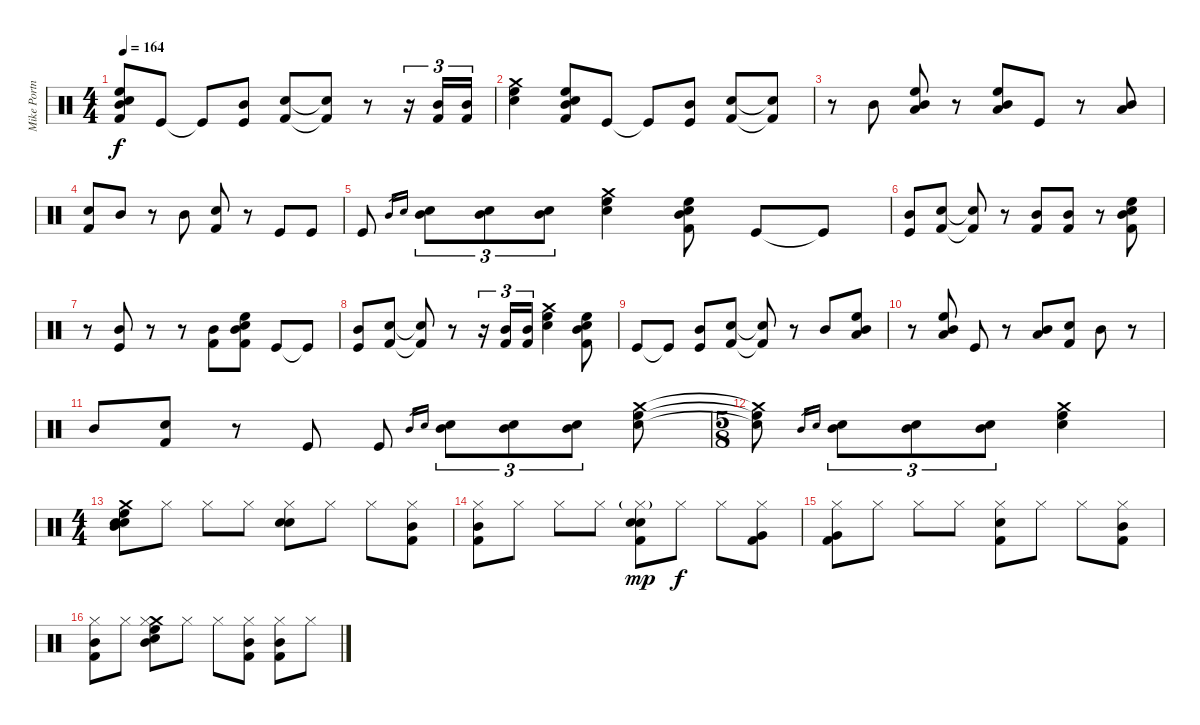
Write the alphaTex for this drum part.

\track ("Mike Portnoy" "Mike Portn") {instrument percussion}
\staff {score}
\articulation defaults
\ts (4 4)
\tempo 164
\clef neutral
\ks c
("Electric Snare (hit)" "Mid Tom (hit)" "Kick (hit) 2" "High Floor Tom (hit)").8{dy f} "Kick (hit)".8 "Kick (hit)"{t}.8 ("Mid Tom (hit)" "Kick (hit)").8 ("Electric Snare (hit)" "Kick (hit) 2").8 ("Electric Snare (hit)"{t} "Kick (hit) 2"{t}).8 r.8 r.16{tu (3 2)} ("Mid Tom (hit)" "Kick (hit) 2").16{tu (3 2)} ("Mid Tom (hit)" "Kick (hit) 2").16{tu (3 2)} |
("Crash medium (hit)" "Electric Snare (hit)" "High Floor Tom (hit)").4 ("Electric Snare (hit)" "Mid Tom (hit)" "Kick (hit) 2" "High Floor Tom (hit)").8 "Kick (hit)".8 "Kick (hit)"{t}.8 ("Mid Tom (hit)" "Kick (hit)").8 ("Electric Snare (hit)" "Kick (hit) 2").8 ("Electric Snare (hit)"{t} "Kick (hit) 2"{t}).8 |
r.8 "Mid Tom (hit)".8 ("Low Tom (hit)" "Mid Tom (hit)" "High Floor Tom (hit)").8 r.8 ("Low Tom (hit)" "Mid Tom (hit)" "High Floor Tom (hit)").8 "Kick (hit)".8 r.8 ("Mid Tom (hit)" "Low Tom (hit)").8 |
("Electric Snare (hit)" "Kick (hit) 2").8 "Mid Tom (hit)".8 r.8 "Mid Tom (hit)".8 ("Electric Snare (hit)" "Kick (hit) 2").8 r.8 "Kick (hit)".8 "Kick (hit)".8 |
"Kick (hit)".8 "Mid Tom (hit)".16{gr} "Electric Snare (hit)".16{gr} ("Mid Tom (hit)" "Electric Snare (hit)").8{tu (3 2)} ("Mid Tom (hit)" "Electric Snare (hit)").8{tu (3 2)} ("Mid Tom (hit)" "Electric Snare (hit)").8{tu (3 2)} ("Crash medium (hit)" "Electric Snare (hit)" "High Floor Tom (hit)").4 ("Electric Snare (hit)" "Mid Tom (hit)" "Kick (hit) 2" "High Floor Tom (hit)").8 "Kick (hit)".8 "Kick (hit)"{t}.8 |
("Mid Tom (hit)" "Kick (hit)").8 ("Electric Snare (hit)" "Kick (hit) 2").8 ("Electric Snare (hit)"{t} "Kick (hit) 2"{t}).8 r.8 ("Mid Tom (hit)" "Kick (hit) 2").8 ("Mid Tom (hit)" "Kick (hit) 2").8 r.8 ("Electric Snare (hit)" "Mid Tom (hit)" "Kick (hit) 2" "High Floor Tom (hit)").8 |
r.8 ("Mid Tom (hit)" "Kick (hit)").8 r.8 r.8 ("Mid Tom (hit)" "Kick (hit) 2").8 ("Electric Snare (hit)" "Mid Tom (hit)" "Kick (hit) 2" "High Floor Tom (hit)").8 "Kick (hit)".8 "Kick (hit)"{t}.8 |
("Mid Tom (hit)" "Kick (hit)").8 ("Electric Snare (hit)" "Kick (hit) 2").8 ("Electric Snare (hit)"{t} "Kick (hit) 2"{t}).8 r.8 r.16{tu (3 2)} ("Mid Tom (hit)" "Kick (hit) 2").16{tu (3 2)} ("Mid Tom (hit)" "Kick (hit) 2").16{tu (3 2)} ("Crash medium (hit)" "Electric Snare (hit)" "High Floor Tom (hit)").4 ("Electric Snare (hit)" "Mid Tom (hit)" "Kick (hit) 2" "High Floor Tom (hit)").8 |
"Kick (hit)".8 "Kick (hit)"{t}.8 ("Mid Tom (hit)" "Kick (hit)").8 ("Electric Snare (hit)" "Kick (hit) 2").8 ("Electric Snare (hit)"{t} "Kick (hit) 2"{t}).8 r.8 "Mid Tom (hit)".8 ("Low Tom (hit)" "Mid Tom (hit)" "High Floor Tom (hit)").8 |
r.8 ("Low Tom (hit)" "Mid Tom (hit)" "High Floor Tom (hit)").8 "Kick (hit)".8 r.8 ("Mid Tom (hit)" "Low Tom (hit)").8 ("Electric Snare (hit)" "Kick (hit) 2").8 "Mid Tom (hit)".8 r.8 |
"Mid Tom (hit)".8 ("Electric Snare (hit)" "Kick (hit) 2").8 r.8 "Kick (hit)".8 "Kick (hit)".8 "Mid Tom (hit)".16{gr} "Electric Snare (hit)".16{gr} ("Mid Tom (hit)" "Electric Snare (hit)").8{tu (3 2)} ("Mid Tom (hit)" "Electric Snare (hit)").8{tu (3 2)} ("Mid Tom (hit)" "Electric Snare (hit)").8{tu (3 2)} ("Crash medium (hit)" "Electric Snare (hit)" "High Floor Tom (hit)").8 |
\ts (5 8)
("Crash medium (hit)"{t} "Electric Snare (hit)"{t} "High Floor Tom (hit)"{t}).8 "Mid Tom (hit)".16{gr} "Electric Snare (hit)".16{gr} ("Mid Tom (hit)" "Electric Snare (hit)").8{tu (3 2)} ("Mid Tom (hit)" "Electric Snare (hit)").8{tu (3 2)} ("Mid Tom (hit)" "Electric Snare (hit)").8{tu (3 2)} ("Crash medium (hit)" "Electric Snare (hit)" "High Floor Tom (hit)").4 |
\ts (4 4)
("Crash medium (hit)" "Electric Snare (hit)" "Electric Snare (hit)" "Mid Tom (hit)" "High Floor Tom (hit)").8 "Hi-Hat (closed)".8 "Hi-Hat (closed)".8 "Hi-Hat (closed)".8 ("Hi-Hat (closed)" "Electric Snare (hit)" "Electric Snare (hit)").8 "Hi-Hat (closed)".8 "Hi-Hat (closed)".8 ("Hi-Hat (closed)" "Mid Tom (hit)" "Kick (hit) 2").8 |
("Hi-Hat (closed)" "Mid Tom (hit)" "Kick (hit) 2").8 "Hi-Hat (closed)".8 "Hi-Hat (closed)".8 "Hi-Hat (closed)".8 ("Hi-Hat (closed)"{g} "Electric Snare (hit)" "Electric Snare (hit)" "Kick (hit) 2").8{dy mp} "Hi-Hat (closed)".8{dy f} "Hi-Hat (closed)".8 ("Hi-Hat (closed)" "Very Low Tom (hit)" "Kick (hit) 2").8 |
("Hi-Hat (closed)" "Very Low Tom (hit)" "Kick (hit) 2").8 "Hi-Hat (closed)".8 "Hi-Hat (closed)".8 "Hi-Hat (closed)".8 ("Hi-Hat (closed)" "Electric Snare (hit)" "Kick (hit) 2").8 "Hi-Hat (closed)".8 "Hi-Hat (closed)".8 ("Hi-Hat (closed)" "Kick (hit) 2" "Mid Tom (hit)").8 |
("Hi-Hat (closed)" "Kick (hit) 2" "Mid Tom (hit)").8 "Hi-Hat (closed)".8 ("Crash medium (hit)" "Hi-Hat (closed)" "Electric Snare (hit)" "Mid Tom (hit)" "High Floor Tom (hit)").8 "Hi-Hat (closed)".8 "Hi-Hat (closed)".8 ("Hi-Hat (closed)" "Mid Tom (hit)" "Kick (hit) 2").8 ("Hi-Hat (closed)" "Mid Tom (hit)" "Kick (hit) 2").8 "Hi-Hat (closed)".8
